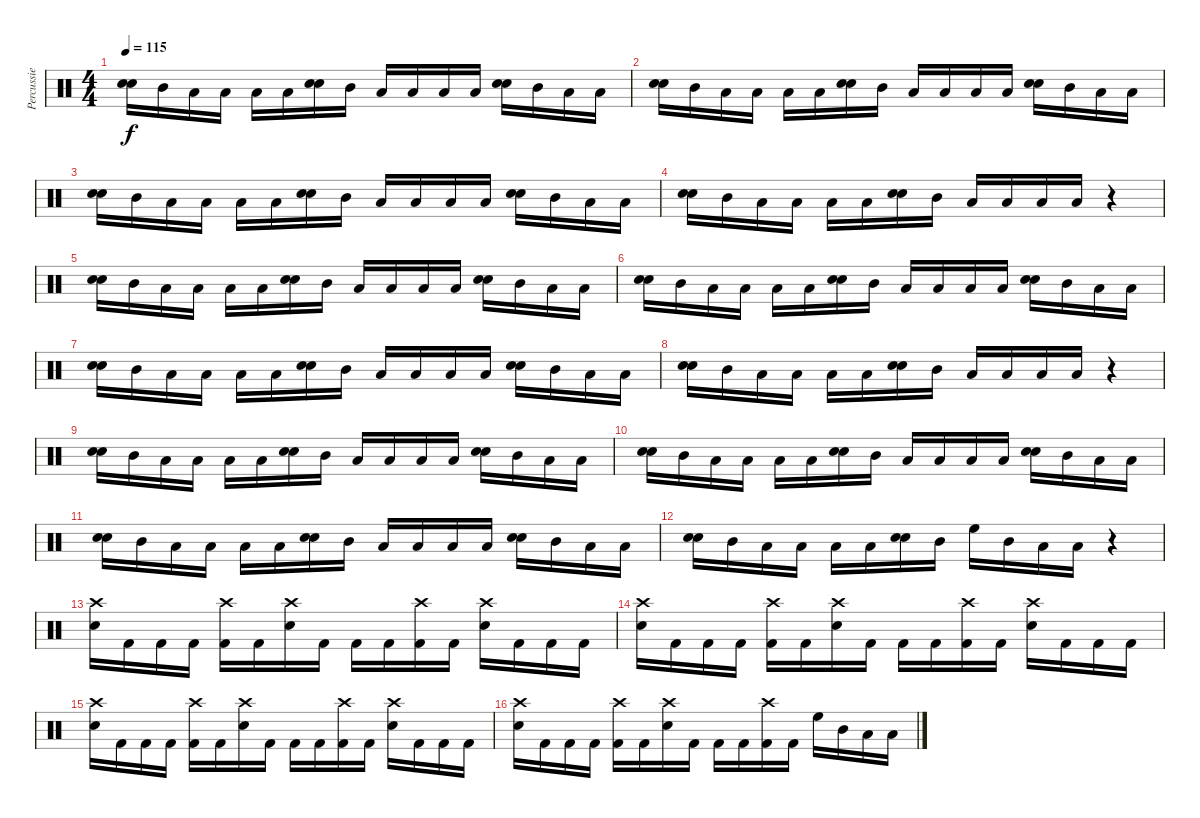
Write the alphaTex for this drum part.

\track ("Percussie" "Percussie") {instrument percussion}
\staff {score}
\articulation defaults
\ts (4 4)
\tempo 115
\clef neutral
\ks c
("Snare (hit) 2" "Snare (hit) 2").16{bd 480 dy f} "Mid Tom (hit)".16 "Low Tom (hit)".16 "Low Floor Tom (hit)".16 "Low Tom (hit)".16 "Low Floor Tom (hit)".16 ("Snare (hit) 2" "Snare (hit) 2").16{bd 480} "Mid Tom (hit)".16 "Low Tom (hit)".16 "Low Floor Tom (hit)".16 "Low Tom (hit)".16 "Low Floor Tom (hit)".16 ("Snare (hit) 2" "Snare (hit) 2").16{bd 480} "Mid Tom (hit)".16 "Low Tom (hit)".16 "Low Floor Tom (hit)".16 |
("Snare (hit) 2" "Snare (hit) 2").16{bd 480} "Mid Tom (hit)".16 "Low Tom (hit)".16 "Low Floor Tom (hit)".16 "Low Tom (hit)".16 "Low Floor Tom (hit)".16 ("Snare (hit) 2" "Snare (hit) 2").16{bd 480} "Mid Tom (hit)".16 "Low Tom (hit)".16 "Low Floor Tom (hit)".16 "Low Tom (hit)".16 "Low Floor Tom (hit)".16 ("Snare (hit) 2" "Snare (hit) 2").16{bd 480} "Mid Tom (hit)".16 "Low Tom (hit)".16 "Low Floor Tom (hit)".16 |
("Snare (hit) 2" "Snare (hit) 2").16{bd 480} "Mid Tom (hit)".16 "Low Tom (hit)".16 "Low Floor Tom (hit)".16 "Low Tom (hit)".16 "Low Floor Tom (hit)".16 ("Snare (hit) 2" "Snare (hit) 2").16{bd 480} "Mid Tom (hit)".16 "Low Tom (hit)".16 "Low Floor Tom (hit)".16 "Low Tom (hit)".16 "Low Floor Tom (hit)".16 ("Snare (hit) 2" "Snare (hit) 2").16{bd 480} "Mid Tom (hit)".16 "Low Tom (hit)".16 "Low Floor Tom (hit)".16 |
("Snare (hit) 2" "Snare (hit) 2").16{bd 480} "Mid Tom (hit)".16 "Low Tom (hit)".16 "Low Floor Tom (hit)".16 "Low Tom (hit)".16 "Low Floor Tom (hit)".16 ("Snare (hit) 2" "Snare (hit) 2").16{bd 480} "Mid Tom (hit)".16 "Low Tom (hit)".16 "Low Floor Tom (hit)".16 "Low Tom (hit)".16 "Low Floor Tom (hit)".16 r.4 |
("Snare (hit) 2" "Snare (hit) 2").16{bd 480} "Mid Tom (hit)".16 "Low Tom (hit)".16 "Low Floor Tom (hit)".16 "Low Tom (hit)".16 "Low Floor Tom (hit)".16 ("Snare (hit) 2" "Snare (hit) 2").16{bd 480} "Mid Tom (hit)".16 "Low Tom (hit)".16 "Low Floor Tom (hit)".16 "Low Tom (hit)".16 "Low Floor Tom (hit)".16 ("Snare (hit) 2" "Snare (hit) 2").16{bd 480} "Mid Tom (hit)".16 "Low Tom (hit)".16 "Low Floor Tom (hit)".16 |
("Snare (hit) 2" "Snare (hit) 2").16{bd 480} "Mid Tom (hit)".16 "Low Tom (hit)".16 "Low Floor Tom (hit)".16 "Low Tom (hit)".16 "Low Floor Tom (hit)".16 ("Snare (hit) 2" "Snare (hit) 2").16{bd 480} "Mid Tom (hit)".16 "Low Tom (hit)".16 "Low Floor Tom (hit)".16 "Low Tom (hit)".16 "Low Floor Tom (hit)".16 ("Snare (hit) 2" "Snare (hit) 2").16{bd 480} "Mid Tom (hit)".16 "Low Tom (hit)".16 "Low Floor Tom (hit)".16 |
("Snare (hit) 2" "Snare (hit) 2").16{bd 480} "Mid Tom (hit)".16 "Low Tom (hit)".16 "Low Floor Tom (hit)".16 "Low Tom (hit)".16 "Low Floor Tom (hit)".16 ("Snare (hit) 2" "Snare (hit) 2").16{bd 480} "Mid Tom (hit)".16 "Low Tom (hit)".16 "Low Floor Tom (hit)".16 "Low Tom (hit)".16 "Low Floor Tom (hit)".16 ("Snare (hit) 2" "Snare (hit) 2").16{bd 480} "Mid Tom (hit)".16 "Low Tom (hit)".16 "Low Floor Tom (hit)".16 |
("Snare (hit) 2" "Snare (hit) 2").16{bd 480} "Mid Tom (hit)".16 "Low Tom (hit)".16 "Low Floor Tom (hit)".16 "Low Tom (hit)".16 "Low Floor Tom (hit)".16 ("Snare (hit) 2" "Snare (hit) 2").16{bd 480} "Mid Tom (hit)".16 "Low Tom (hit)".16 "Low Floor Tom (hit)".16 "Low Tom (hit)".16 "Low Floor Tom (hit)".16 r.4 |
("Snare (hit) 2" "Snare (hit) 2").16{bd 480} "Mid Tom (hit)".16 "Low Tom (hit)".16 "Low Floor Tom (hit)".16 "Low Tom (hit)".16 "Low Floor Tom (hit)".16 ("Snare (hit) 2" "Snare (hit) 2").16{bd 480} "Mid Tom (hit)".16 "Low Tom (hit)".16 "Low Floor Tom (hit)".16 "Low Tom (hit)".16 "Low Floor Tom (hit)".16 ("Snare (hit) 2" "Snare (hit) 2").16{bd 480} "Mid Tom (hit)".16 "Low Tom (hit)".16 "Low Floor Tom (hit)".16 |
("Snare (hit) 2" "Snare (hit) 2").16{bd 480} "Mid Tom (hit)".16 "Low Tom (hit)".16 "Low Floor Tom (hit)".16 "Low Tom (hit)".16 "Low Floor Tom (hit)".16 ("Snare (hit) 2" "Snare (hit) 2").16{bd 480} "Mid Tom (hit)".16 "Low Tom (hit)".16 "Low Floor Tom (hit)".16 "Low Tom (hit)".16 "Low Floor Tom (hit)".16 ("Snare (hit) 2" "Snare (hit) 2").16{bd 480} "Mid Tom (hit)".16 "Low Tom (hit)".16 "Low Floor Tom (hit)".16 |
("Snare (hit) 2" "Snare (hit) 2").16{bd 480} "Mid Tom (hit)".16 "Low Tom (hit)".16 "Low Floor Tom (hit)".16 "Low Tom (hit)".16 "Low Floor Tom (hit)".16 ("Snare (hit) 2" "Snare (hit) 2").16{bd 480} "Mid Tom (hit)".16 "Low Tom (hit)".16 "Low Floor Tom (hit)".16 "Low Tom (hit)".16 "Low Floor Tom (hit)".16 ("Snare (hit) 2" "Snare (hit) 2").16{bd 480} "Mid Tom (hit)".16 "Low Tom (hit)".16 "Low Floor Tom (hit)".16 |
("Snare (hit) 2" "Snare (hit) 2").16{bd 480} "Mid Tom (hit)".16 "Low Tom (hit)".16 "Low Floor Tom (hit)".16 "Low Tom (hit)".16 "Low Floor Tom (hit)".16 ("Snare (hit) 2" "Snare (hit) 2").16{bd 480} "Mid Tom (hit)".16 "High Floor Tom (hit)".16 "Mid Tom (hit)".16 "Low Tom (hit)".16 "Low Floor Tom (hit)".16 r.4 |
("Snare (hit) 2" "Crash high (hit)").16 "Kick (hit) 2".16 "Kick (hit) 2".16 "Kick (hit) 2".16 ("Kick (hit) 2" "Crash high (hit)").16 "Kick (hit) 2".16 ("Snare (hit) 2" "Crash high (hit)").16 "Kick (hit) 2".16 "Kick (hit) 2".16 "Kick (hit) 2".16 ("Kick (hit) 2" "Crash high (hit)").16 "Kick (hit) 2".16 ("Snare (hit) 2" "Crash high (hit)").16 "Kick (hit) 2".16 "Kick (hit) 2".16 "Kick (hit) 2".16 |
("Snare (hit) 2" "Crash high (hit)").16 "Kick (hit) 2".16 "Kick (hit) 2".16 "Kick (hit) 2".16 ("Kick (hit) 2" "Crash high (hit)").16 "Kick (hit) 2".16 ("Snare (hit) 2" "Crash high (hit)").16 "Kick (hit) 2".16 "Kick (hit) 2".16 "Kick (hit) 2".16 ("Kick (hit) 2" "Crash high (hit)").16 "Kick (hit) 2".16 ("Snare (hit) 2" "Crash high (hit)").16 "Kick (hit) 2".16 "Kick (hit) 2".16 "Kick (hit) 2".16 |
("Snare (hit) 2" "Crash high (hit)").16 "Kick (hit) 2".16 "Kick (hit) 2".16 "Kick (hit) 2".16 ("Kick (hit) 2" "Crash high (hit)").16 "Kick (hit) 2".16 ("Snare (hit) 2" "Crash high (hit)").16 "Kick (hit) 2".16 "Kick (hit) 2".16 "Kick (hit) 2".16 ("Kick (hit) 2" "Crash high (hit)").16 "Kick (hit) 2".16 ("Snare (hit) 2" "Crash high (hit)").16 "Kick (hit) 2".16 "Kick (hit) 2".16 "Kick (hit) 2".16 |
("Snare (hit) 2" "Crash high (hit)").16 "Kick (hit) 2".16 "Kick (hit) 2".16 "Kick (hit) 2".16 ("Kick (hit) 2" "Crash high (hit)").16 "Kick (hit) 2".16 ("Snare (hit) 2" "Crash high (hit)").16 "Kick (hit) 2".16 "Kick (hit) 2".16 "Kick (hit) 2".16 ("Kick (hit) 2" "Crash high (hit)").16 "Kick (hit) 2".16 "High Floor Tom (hit)".16 "Mid Tom (hit)".16 "Low Tom (hit)".16 "Low Floor Tom (hit)".16
